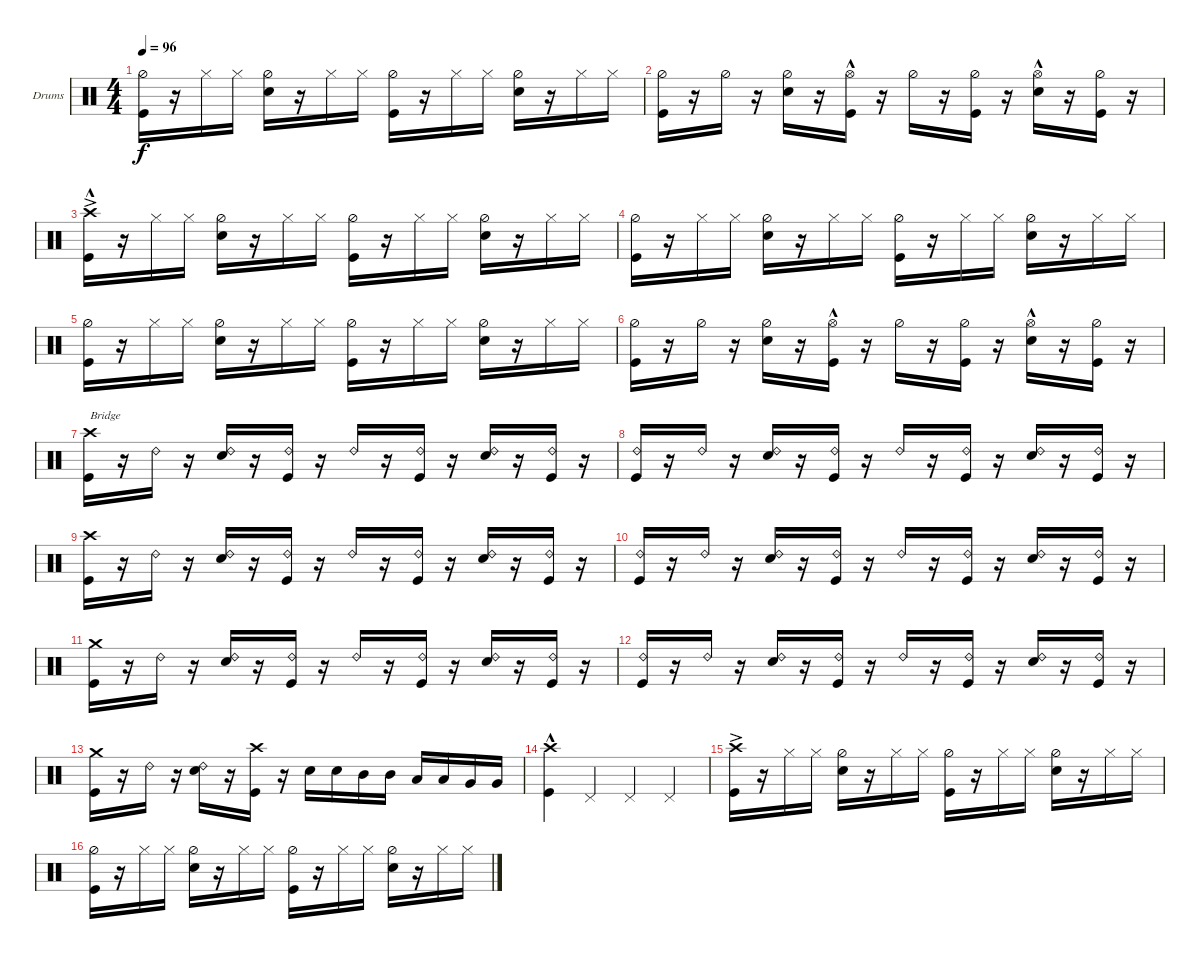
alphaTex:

\defaultSystemsLayout 4
\bracketExtendMode groupsimilarinstruments
\firstSystemTrackNameOrientation horizontal
\otherSystemsTrackNameOrientation horizontal
\track ("Stefan Schwarzmann" "Drums") {instrument percussion}
\staff {score}
\articulation defaults
\ts (4 4)
\tempo 96
\clef neutral
\ks c
("Kick (hit)" "Hi-Hat (half)").16{dy f} r.16 "Hi-Hat (closed)".16 "Hi-Hat (closed)".16 ("Snare (hit) 2" "Hi-Hat (half)").16 r.16 "Hi-Hat (closed)".16 "Hi-Hat (closed)".16 ("Kick (hit)" "Hi-Hat (half)").16 r.16 "Hi-Hat (closed)".16 "Hi-Hat (closed)".16 ("Snare (hit) 2" "Hi-Hat (half)").16 r.16 "Hi-Hat (closed)".16 "Hi-Hat (closed)".16 |
("Kick (hit)" "Hi-Hat (half)").16 r.16 "Hi-Hat (half)".16 r.16 ("Snare (hit) 2" "Hi-Hat (half)").16 r.16 ("Kick (hit)" "Hi-Hat (open)"{hac}).16 r.16 "Hi-Hat (half)".16 r.16 ("Hi-Hat (half)" "Kick (hit)").16 r.16 ("Snare (hit) 2" "Hi-Hat (open)"{hac}).16 r.16 ("Hi-Hat (half)" "Kick (hit)").16 r.16 |
("Kick (hit)"{ac} "Crash high (hit)"{hac}).16 r.16 "Hi-Hat (closed)".16 "Hi-Hat (closed)".16 ("Snare (hit) 2" "Hi-Hat (half)").16 r.16 "Hi-Hat (closed)".16 "Hi-Hat (closed)".16 ("Kick (hit)" "Hi-Hat (half)").16 r.16 "Hi-Hat (closed)".16 "Hi-Hat (closed)".16 ("Snare (hit) 2" "Hi-Hat (half)").16 r.16 "Hi-Hat (closed)".16 "Hi-Hat (closed)".16 |
("Kick (hit)" "Hi-Hat (half)").16 r.16 "Hi-Hat (closed)".16 "Hi-Hat (closed)".16 ("Snare (hit) 2" "Hi-Hat (half)").16 r.16 "Hi-Hat (closed)".16 "Hi-Hat (closed)".16 ("Kick (hit)" "Hi-Hat (half)").16 r.16 "Hi-Hat (closed)".16 "Hi-Hat (closed)".16 ("Snare (hit) 2" "Hi-Hat (half)").16 r.16 "Hi-Hat (closed)".16 "Hi-Hat (closed)".16 |
("Kick (hit)" "Hi-Hat (half)").16 r.16 "Hi-Hat (closed)".16 "Hi-Hat (closed)".16 ("Snare (hit) 2" "Hi-Hat (half)").16 r.16 "Hi-Hat (closed)".16 "Hi-Hat (closed)".16 ("Kick (hit)" "Hi-Hat (half)").16 r.16 "Hi-Hat (closed)".16 "Hi-Hat (closed)".16 ("Snare (hit) 2" "Hi-Hat (half)").16 r.16 "Hi-Hat (closed)".16 "Hi-Hat (closed)".16 |
("Kick (hit)" "Hi-Hat (half)").16 r.16 "Hi-Hat (half)".16 r.16 ("Snare (hit) 2" "Hi-Hat (half)").16 r.16 ("Kick (hit)" "Hi-Hat (open)"{hac}).16 r.16 "Hi-Hat (half)".16 r.16 ("Hi-Hat (half)" "Kick (hit)").16 r.16 ("Snare (hit) 2" "Hi-Hat (open)"{hac}).16 r.16 ("Hi-Hat (half)" "Kick (hit)").16 r.16 |
("Kick (hit)" "Crash high (hit)").16{txt "Bridge"} r.16 "Ride (bell) 2".16 r.16 ("Snare (hit) 2" "Ride (bell) 2").16 r.16 ("Kick (hit)" "Ride (bell) 2").16 r.16 "Ride (bell) 2".16 r.16 ("Kick (hit)" "Ride (bell) 2").16 r.16 ("Snare (hit) 2" "Ride (bell) 2").16 r.16 ("Kick (hit)" "Ride (bell) 2").16 r.16 |
("Kick (hit)" "Ride (bell) 2").16 r.16 "Ride (bell) 2".16 r.16 ("Snare (hit) 2" "Ride (bell) 2").16 r.16 ("Kick (hit)" "Ride (bell) 2").16 r.16 "Ride (bell) 2".16 r.16 ("Kick (hit)" "Ride (bell) 2").16 r.16 ("Snare (hit) 2" "Ride (bell) 2").16 r.16 ("Kick (hit)" "Ride (bell) 2").16 r.16 |
("Kick (hit)" "Crash high (hit)").16 r.16 "Ride (bell) 2".16 r.16 ("Snare (hit) 2" "Ride (bell) 2").16 r.16 ("Kick (hit)" "Ride (bell) 2").16 r.16 "Ride (bell) 2".16 r.16 ("Kick (hit)" "Ride (bell) 2").16 r.16 ("Snare (hit) 2" "Ride (bell) 2").16 r.16 ("Kick (hit)" "Ride (bell) 2").16 r.16 |
("Kick (hit)" "Ride (bell) 2").16 r.16 "Ride (bell) 2".16 r.16 ("Snare (hit) 2" "Ride (bell) 2").16 r.16 ("Kick (hit)" "Ride (bell) 2").16 r.16 "Ride (bell) 2".16 r.16 ("Kick (hit)" "Ride (bell) 2").16 r.16 ("Snare (hit) 2" "Ride (bell) 2").16 r.16 ("Kick (hit)" "Ride (bell) 2").16 r.16 |
("Kick (hit)" "Crash medium (hit)").16 r.16 "Ride (bell) 2".16 r.16 ("Snare (hit) 2" "Ride (bell) 2").16 r.16 ("Kick (hit)" "Ride (bell) 2").16 r.16 "Ride (bell) 2".16 r.16 ("Kick (hit)" "Ride (bell) 2").16 r.16 ("Snare (hit) 2" "Ride (bell) 2").16 r.16 ("Kick (hit)" "Ride (bell) 2").16 r.16 |
("Kick (hit)" "Ride (bell) 2").16 r.16 "Ride (bell) 2".16 r.16 ("Snare (hit) 2" "Ride (bell) 2").16 r.16 ("Kick (hit)" "Ride (bell) 2").16 r.16 "Ride (bell) 2".16 r.16 ("Kick (hit)" "Ride (bell) 2").16 r.16 ("Snare (hit) 2" "Ride (bell) 2").16 r.16 ("Kick (hit)" "Ride (bell) 2").16 r.16 |
("Kick (hit)" "Crash medium (hit)").16 r.16 "Ride (bell) 2".16 r.16 ("Snare (hit) 2" "Ride (bell) 2").16 r.16 ("Kick (hit)" "Crash high (hit)").16 r.16 "Snare (hit) 2".16 "Snare (hit) 2".16 "Mid Tom (hit)".16 "Mid Tom (hit)".16 "Low Tom (hit)".16 "Low Tom (hit)".16 "Very Low Tom (hit)".16 "Very Low Tom (hit)".16 |
("Kick (hit)"{hac} "Crash high (hit)"{hac}).4 "Pedal Hi-Hat (hit)".4 "Pedal Hi-Hat (hit)".4 "Pedal Hi-Hat (hit)".4 |
("Kick (hit)"{ac} "Crash high (hit)"{ac}).16 r.16 "Hi-Hat (closed)".16 "Hi-Hat (closed)".16 ("Snare (hit) 2" "Hi-Hat (half)").16 r.16 "Hi-Hat (closed)".16 "Hi-Hat (closed)".16 ("Kick (hit)" "Hi-Hat (half)").16 r.16 "Hi-Hat (closed)".16 "Hi-Hat (closed)".16 ("Snare (hit) 2" "Hi-Hat (half)").16 r.16 "Hi-Hat (closed)".16 "Hi-Hat (closed)".16 |
("Kick (hit)" "Hi-Hat (half)").16 r.16 "Hi-Hat (closed)".16 "Hi-Hat (closed)".16 ("Snare (hit) 2" "Hi-Hat (half)").16 r.16 "Hi-Hat (closed)".16 "Hi-Hat (closed)".16 ("Kick (hit)" "Hi-Hat (half)").16 r.16 "Hi-Hat (closed)".16 "Hi-Hat (closed)".16 ("Snare (hit) 2" "Hi-Hat (half)").16 r.16 "Hi-Hat (closed)".16 "Hi-Hat (closed)".16
